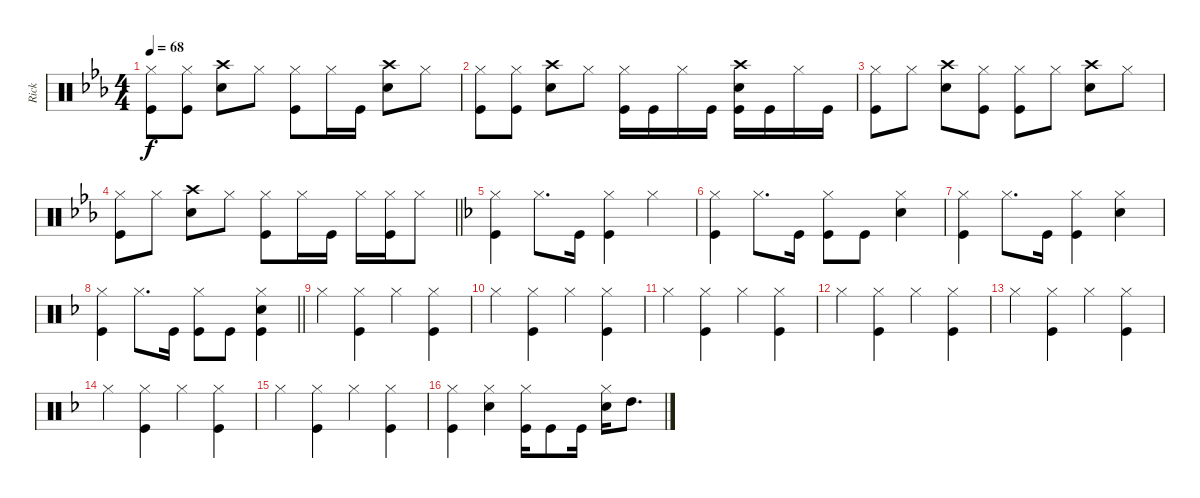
\track ("Rick " "Rick ") {instrument percussion}
\staff {score}
\articulation defaults
\ts (4 4)
\tempo 68
\clef neutral
\ks eb
("Hi-Hat (closed)" "Kick (hit)").8{dy f} ("Hi-Hat (closed)" "Kick (hit)").8 ("Crash high (hit)" "Snare (hit) 2").8 "Hi-Hat (closed)".8 ("Hi-Hat (closed)" "Kick (hit)").8 "Hi-Hat (closed)".16 "Kick (hit)".16 ("Crash high (hit)" "Snare (hit) 2").8 "Hi-Hat (closed)".8 |
("Hi-Hat (closed)" "Kick (hit)").8 ("Hi-Hat (closed)" "Kick (hit)").8 ("Crash high (hit)" "Snare (hit) 2").8 "Hi-Hat (closed)".8 ("Hi-Hat (closed)" "Kick (hit)").16 "Kick (hit)".16 "Hi-Hat (closed)".16 "Kick (hit)".16 ("Crash high (hit)" "Snare (hit) 2" "Kick (hit)").16 "Kick (hit)".16 "Hi-Hat (closed)".16 "Kick (hit)".16 |
("Hi-Hat (closed)" "Kick (hit)").8 "Hi-Hat (closed)".8 ("Crash high (hit)" "Snare (hit) 2").8 ("Hi-Hat (closed)" "Kick (hit)").8 ("Hi-Hat (closed)" "Kick (hit)").8 "Hi-Hat (closed)".8 ("Crash high (hit)" "Snare (hit) 2").8 "Hi-Hat (closed)".8 |
\barLineRight lightlight
("Hi-Hat (closed)" "Kick (hit)").8 "Hi-Hat (closed)".8 ("Crash high (hit)" "Snare (hit) 2").8 "Hi-Hat (closed)".8 ("Hi-Hat (closed)" "Kick (hit)").8 "Hi-Hat (closed)".16 "Kick (hit)".16 "Hi-Hat (closed)".16 ("Hi-Hat (closed)" "Kick (hit)").16 "Hi-Hat (closed)".8 |
\ks dminor
("Hi-Hat (closed)" "Kick (hit)").4 "Hi-Hat (closed)".8{d} "Kick (hit)".16 ("Hi-Hat (closed)" "Kick (hit)").4 "Hi-Hat (closed)".4 |
("Hi-Hat (closed)" "Kick (hit)").4 "Hi-Hat (closed)".8{d} "Kick (hit)".16 ("Hi-Hat (closed)" "Kick (hit)").8 "Kick (hit)".8 ("Hi-Hat (closed)" "Snare (hit) 2").4 |
("Hi-Hat (closed)" "Kick (hit)").4 "Hi-Hat (closed)".8{d} "Kick (hit)".16 ("Hi-Hat (closed)" "Kick (hit)").4 ("Hi-Hat (closed)" "Snare (hit) 2").4 |
\barLineRight lightlight
("Hi-Hat (closed)" "Kick (hit)").4 "Hi-Hat (closed)".8{d} "Kick (hit)".16 ("Hi-Hat (closed)" "Kick (hit)").8 "Kick (hit)".8 ("Hi-Hat (closed)" "Snare (hit) 2" "Kick (hit)").4 |
"Hi-Hat (closed)".4 ("Hi-Hat (closed)" "Kick (hit)").4 "Hi-Hat (closed)".4 ("Hi-Hat (closed)" "Kick (hit)").4 |
"Hi-Hat (closed)".4 ("Hi-Hat (closed)" "Kick (hit)").4 "Hi-Hat (closed)".4 ("Hi-Hat (closed)" "Kick (hit)").4 |
"Hi-Hat (closed)".4 ("Hi-Hat (closed)" "Kick (hit)").4 "Hi-Hat (closed)".4 ("Hi-Hat (closed)" "Kick (hit)").4 |
"Hi-Hat (closed)".4 ("Hi-Hat (closed)" "Kick (hit)").4 "Hi-Hat (closed)".4 ("Hi-Hat (closed)" "Kick (hit)").4 |
"Hi-Hat (closed)".4 ("Hi-Hat (closed)" "Kick (hit)").4 "Hi-Hat (closed)".4 ("Hi-Hat (closed)" "Kick (hit)").4 |
"Hi-Hat (closed)".4 ("Hi-Hat (closed)" "Kick (hit)").4 "Hi-Hat (closed)".4 ("Hi-Hat (closed)" "Kick (hit)").4 |
"Hi-Hat (closed)".4 ("Hi-Hat (closed)" "Kick (hit)").4 "Hi-Hat (closed)".4 ("Hi-Hat (closed)" "Kick (hit)").4 |
("Hi-Hat (closed)" "Kick (hit)").4 ("Hi-Hat (closed)" "Snare (hit) 2").4 ("Hi-Hat (closed)" "Kick (hit)").16 "Kick (hit)".8 "Kick (hit)".16 ("Hi-Hat (closed)" "Snare (hit) 2").16 "High Tom (hit)".8{d}
